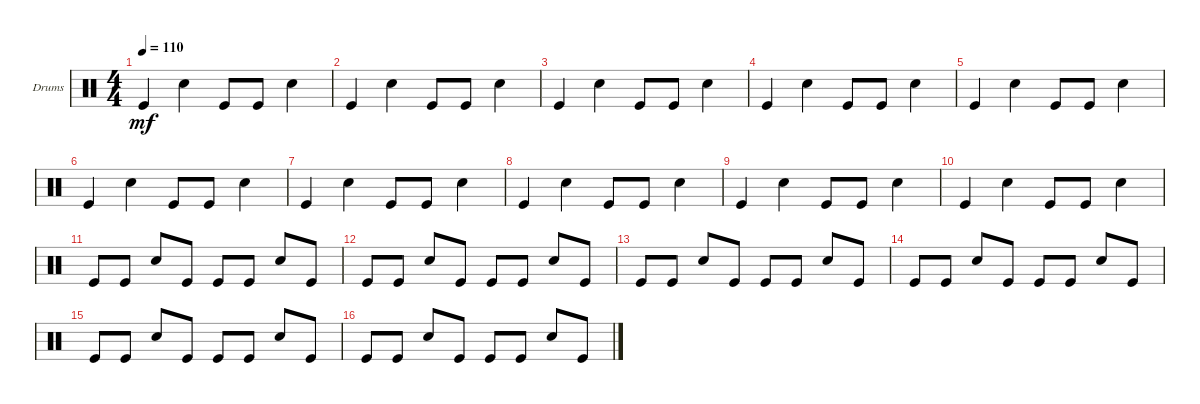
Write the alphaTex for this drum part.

\defaultSystemsLayout 4
\bracketExtendMode groupsimilarinstruments
\firstSystemTrackNameOrientation horizontal
\otherSystemsTrackNameOrientation horizontal
\track ("Tico Torres" "Drums") {instrument percussion}
\staff {score}
\articulation defaults
\ts (4 4)
\tempo 110
\clef neutral
\ks c "Kick (hit)".4{dy mf} "Snare (hit) 2".4 "Kick (hit)".8 "Kick (hit)".8 "Snare (hit) 2".4
|
"Kick (hit)".4 "Snare (hit) 2".4 "Kick (hit)".8 "Kick (hit)".8 "Snare (hit) 2".4 |
"Kick (hit)".4 "Snare (hit) 2".4 "Kick (hit)".8 "Kick (hit)".8 "Snare (hit) 2".4 |
"Kick (hit)".4 "Snare (hit) 2".4 "Kick (hit)".8 "Kick (hit)".8 "Snare (hit) 2".4 |
"Kick (hit)".4 "Snare (hit) 2".4 "Kick (hit)".8 "Kick (hit)".8 "Snare (hit) 2".4 |
"Kick (hit)".4 "Snare (hit) 2".4 "Kick (hit)".8 "Kick (hit)".8 "Snare (hit) 2".4 |
"Kick (hit)".4 "Snare (hit) 2".4 "Kick (hit)".8 "Kick (hit)".8 "Snare (hit) 2".4 |
"Kick (hit)".4 "Snare (hit) 2".4 "Kick (hit)".8 "Kick (hit)".8 "Snare (hit) 2".4 |
"Kick (hit)".4 "Snare (hit) 2".4 "Kick (hit)".8 "Kick (hit)".8 "Snare (hit) 2".4 |
"Kick (hit)".4 "Snare (hit) 2".4 "Kick (hit)".8 "Kick (hit)".8 "Snare (hit) 2".4 |
"Kick (hit)".8 "Kick (hit)".8 "Snare (hit) 2".8 "Kick (hit)".8 "Kick (hit)".8 "Kick (hit)".8 "Snare (hit) 2".8 "Kick (hit)".8 |
"Kick (hit)".8 "Kick (hit)".8 "Snare (hit) 2".8 "Kick (hit)".8 "Kick (hit)".8 "Kick (hit)".8 "Snare (hit) 2".8 "Kick (hit)".8 |
"Kick (hit)".8 "Kick (hit)".8 "Snare (hit) 2".8 "Kick (hit)".8 "Kick (hit)".8 "Kick (hit)".8 "Snare (hit) 2".8 "Kick (hit)".8 |
"Kick (hit)".8 "Kick (hit)".8 "Snare (hit) 2".8 "Kick (hit)".8 "Kick (hit)".8 "Kick (hit)".8 "Snare (hit) 2".8 "Kick (hit)".8 |
"Kick (hit)".8 "Kick (hit)".8 "Snare (hit) 2".8 "Kick (hit)".8 "Kick (hit)".8 "Kick (hit)".8 "Snare (hit) 2".8 "Kick (hit)".8 |
"Kick (hit)".8 "Kick (hit)".8 "Snare (hit) 2".8 "Kick (hit)".8 "Kick (hit)".8 "Kick (hit)".8 "Snare (hit) 2".8 "Kick (hit)".8
